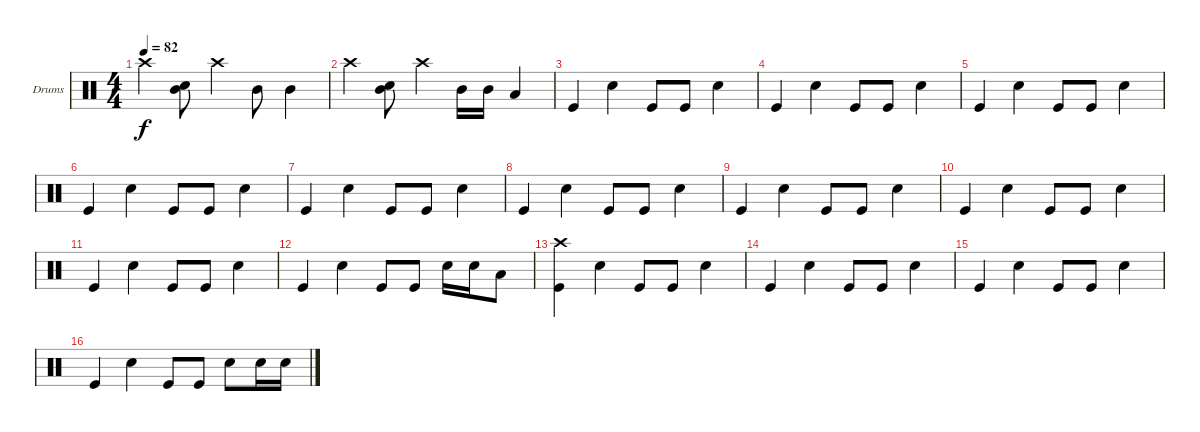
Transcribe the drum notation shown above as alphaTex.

\bracketExtendMode groupsimilarinstruments
\firstSystemTrackNameOrientation horizontal
\otherSystemsTrackNameOrientation horizontal
\track ("Drumkit" "Drums") {instrument percussion}
\staff {score}
\articulation defaults
\ts (4 4)
\tempo 82
\clef neutral
\ks c "Crash high (hit)".4{dy f}
("Mid Tom (hit)" "Snare (hit) 2").8 "Crash high (hit)".4 "Mid Tom (hit)".8 "Mid Tom (hit)".4 |
"Crash high (hit)".4 ("Mid Tom (hit)" "Snare (hit) 2").8 "Crash high (hit)".4 "Mid Tom (hit)".16 "Mid Tom (hit)".16 "Low Tom (hit)".4 |
"Kick (hit)".4 "Snare (hit) 2".4 "Kick (hit)".8 "Kick (hit)".8 "Snare (hit) 2".4 |
"Kick (hit)".4 "Snare (hit) 2".4 "Kick (hit)".8 "Kick (hit)".8 "Snare (hit) 2".4 |
"Kick (hit)".4 "Snare (hit) 2".4 "Kick (hit)".8 "Kick (hit)".8 "Snare (hit) 2".4 |
"Kick (hit)".4 "Snare (hit) 2".4 "Kick (hit)".8 "Kick (hit)".8 "Snare (hit) 2".4 |
"Kick (hit)".4 "Snare (hit) 2".4 "Kick (hit)".8 "Kick (hit)".8 "Snare (hit) 2".4 |
"Kick (hit)".4 "Snare (hit) 2".4 "Kick (hit)".8 "Kick (hit)".8 "Snare (hit) 2".4 |
"Kick (hit)".4 "Snare (hit) 2".4 "Kick (hit)".8 "Kick (hit)".8 "Snare (hit) 2".4 |
"Kick (hit)".4 "Snare (hit) 2".4 "Kick (hit)".8 "Kick (hit)".8 "Snare (hit) 2".4 |
"Kick (hit)".4 "Snare (hit) 2".4 "Kick (hit)".8 "Kick (hit)".8 "Snare (hit) 2".4 |
"Kick (hit)".4 "Snare (hit) 2".4 "Kick (hit)".8 "Kick (hit)".8 "Snare (hit) 2".16 "Snare (hit) 2".16 "Low Tom (hit)".8 |
("Kick (hit)" "Crash high (hit)").4 "Snare (hit) 2".4 "Kick (hit)".8 "Kick (hit)".8 "Snare (hit) 2".4 |
"Kick (hit)".4 "Snare (hit) 2".4 "Kick (hit)".8 "Kick (hit)".8 "Snare (hit) 2".4 |
"Kick (hit)".4 "Snare (hit) 2".4 "Kick (hit)".8 "Kick (hit)".8 "Snare (hit) 2".4 |
"Kick (hit)".4 "Snare (hit) 2".4 "Kick (hit)".8 "Kick (hit)".8 "Snare (hit) 2".8 "Snare (hit) 2".16 "Snare (hit) 2".16
